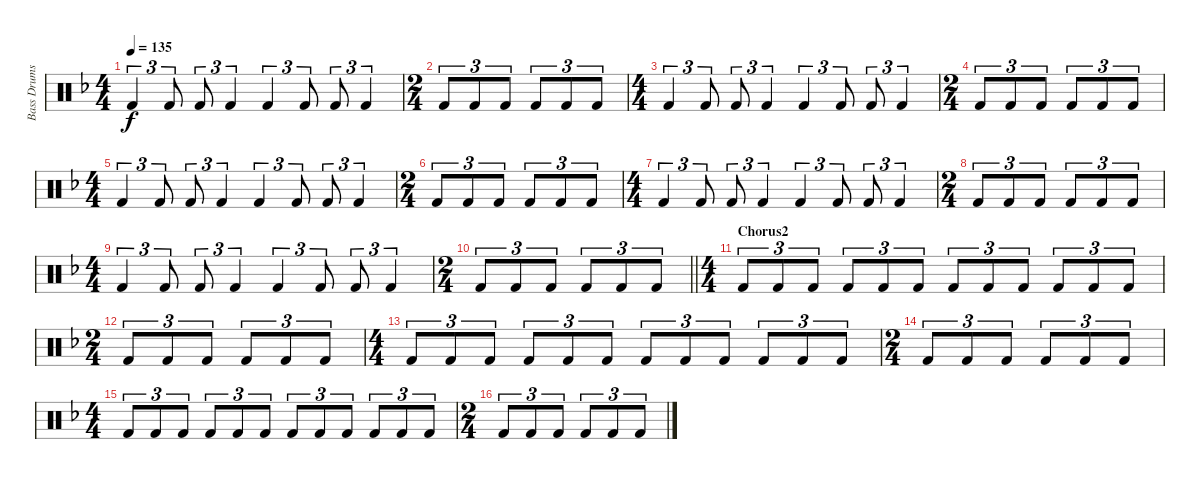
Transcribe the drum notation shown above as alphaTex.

\track ("Bass Drums" "Bass Drums") {instrument percussion}
\staff {score}
\articulation defaults
\ts (4 4)
\tempo 135
\clef neutral
\ks dminor "Kick (hit) 2".4{tu (3 2) dy f} "Kick (hit) 2".8{tu (3 2)} "Kick (hit) 2".8{tu (3 2)} "Kick (hit) 2".4{tu (3 2)} "Kick (hit) 2".4{tu (3 2)} "Kick (hit) 2".8{tu (3 2)} "Kick (hit) 2".8{tu (3 2)} "Kick (hit) 2".4{tu (3 2)}
|
\ts (2 4)
"Kick (hit) 2".8{tu (3 2)} "Kick (hit) 2".8{tu (3 2)} "Kick (hit) 2".8{tu (3 2)} "Kick (hit) 2".8{tu (3 2)} "Kick (hit) 2".8{tu (3 2)} "Kick (hit) 2".8{tu (3 2)} |
\ts (4 4)
"Kick (hit) 2".4{tu (3 2)} "Kick (hit) 2".8{tu (3 2)} "Kick (hit) 2".8{tu (3 2)} "Kick (hit) 2".4{tu (3 2)} "Kick (hit) 2".4{tu (3 2)} "Kick (hit) 2".8{tu (3 2)} "Kick (hit) 2".8{tu (3 2)} "Kick (hit) 2".4{tu (3 2)} |
\ts (2 4)
"Kick (hit) 2".8{tu (3 2)} "Kick (hit) 2".8{tu (3 2)} "Kick (hit) 2".8{tu (3 2)} "Kick (hit) 2".8{tu (3 2)} "Kick (hit) 2".8{tu (3 2)} "Kick (hit) 2".8{tu (3 2)} |
\ts (4 4)
"Kick (hit) 2".4{tu (3 2)} "Kick (hit) 2".8{tu (3 2)} "Kick (hit) 2".8{tu (3 2)} "Kick (hit) 2".4{tu (3 2)} "Kick (hit) 2".4{tu (3 2)} "Kick (hit) 2".8{tu (3 2)} "Kick (hit) 2".8{tu (3 2)} "Kick (hit) 2".4{tu (3 2)} |
\ts (2 4)
"Kick (hit) 2".8{tu (3 2)} "Kick (hit) 2".8{tu (3 2)} "Kick (hit) 2".8{tu (3 2)} "Kick (hit) 2".8{tu (3 2)} "Kick (hit) 2".8{tu (3 2)} "Kick (hit) 2".8{tu (3 2)} |
\ts (4 4)
"Kick (hit) 2".4{tu (3 2)} "Kick (hit) 2".8{tu (3 2)} "Kick (hit) 2".8{tu (3 2)} "Kick (hit) 2".4{tu (3 2)} "Kick (hit) 2".4{tu (3 2)} "Kick (hit) 2".8{tu (3 2)} "Kick (hit) 2".8{tu (3 2)} "Kick (hit) 2".4{tu (3 2)} |
\ts (2 4)
"Kick (hit) 2".8{tu (3 2)} "Kick (hit) 2".8{tu (3 2)} "Kick (hit) 2".8{tu (3 2)} "Kick (hit) 2".8{tu (3 2)} "Kick (hit) 2".8{tu (3 2)} "Kick (hit) 2".8{tu (3 2)} |
\ts (4 4)
"Kick (hit) 2".4{tu (3 2)} "Kick (hit) 2".8{tu (3 2)} "Kick (hit) 2".8{tu (3 2)} "Kick (hit) 2".4{tu (3 2)} "Kick (hit) 2".4{tu (3 2)} "Kick (hit) 2".8{tu (3 2)} "Kick (hit) 2".8{tu (3 2)} "Kick (hit) 2".4{tu (3 2)} |
\ts (2 4)
\barLineRight lightlight "Kick (hit) 2".8{tu (3 2)} "Kick (hit) 2".8{tu (3 2)} "Kick (hit) 2".8{tu (3 2)} "Kick (hit) 2".8{tu (3 2)} "Kick (hit) 2".8{tu (3 2)} "Kick (hit) 2".8{tu (3 2)}
|
\ts (4 4)
\section ("" "Chorus2")
"Kick (hit) 2".8{tu (3 2)} "Kick (hit) 2".8{tu (3 2)} "Kick (hit) 2".8{tu (3 2)} "Kick (hit) 2".8{tu (3 2)} "Kick (hit) 2".8{tu (3 2)} "Kick (hit) 2".8{tu (3 2)} "Kick (hit) 2".8{tu (3 2)} "Kick (hit) 2".8{tu (3 2)} "Kick (hit) 2".8{tu (3 2)} "Kick (hit) 2".8{tu (3 2)} "Kick (hit) 2".8{tu (3 2)} "Kick (hit) 2".8{tu (3 2)} |
\ts (2 4)
"Kick (hit) 2".8{tu (3 2)} "Kick (hit) 2".8{tu (3 2)} "Kick (hit) 2".8{tu (3 2)} "Kick (hit) 2".8{tu (3 2)} "Kick (hit) 2".8{tu (3 2)} "Kick (hit) 2".8{tu (3 2)} |
\ts (4 4)
"Kick (hit) 2".8{tu (3 2)} "Kick (hit) 2".8{tu (3 2)} "Kick (hit) 2".8{tu (3 2)} "Kick (hit) 2".8{tu (3 2)} "Kick (hit) 2".8{tu (3 2)} "Kick (hit) 2".8{tu (3 2)} "Kick (hit) 2".8{tu (3 2)} "Kick (hit) 2".8{tu (3 2)} "Kick (hit) 2".8{tu (3 2)} "Kick (hit) 2".8{tu (3 2)} "Kick (hit) 2".8{tu (3 2)} "Kick (hit) 2".8{tu (3 2)} |
\ts (2 4)
"Kick (hit) 2".8{tu (3 2)} "Kick (hit) 2".8{tu (3 2)} "Kick (hit) 2".8{tu (3 2)} "Kick (hit) 2".8{tu (3 2)} "Kick (hit) 2".8{tu (3 2)} "Kick (hit) 2".8{tu (3 2)} |
\ts (4 4)
"Kick (hit) 2".8{tu (3 2)} "Kick (hit) 2".8{tu (3 2)} "Kick (hit) 2".8{tu (3 2)} "Kick (hit) 2".8{tu (3 2)} "Kick (hit) 2".8{tu (3 2)} "Kick (hit) 2".8{tu (3 2)} "Kick (hit) 2".8{tu (3 2)} "Kick (hit) 2".8{tu (3 2)} "Kick (hit) 2".8{tu (3 2)} "Kick (hit) 2".8{tu (3 2)} "Kick (hit) 2".8{tu (3 2)} "Kick (hit) 2".8{tu (3 2)} |
\ts (2 4)
"Kick (hit) 2".8{tu (3 2)} "Kick (hit) 2".8{tu (3 2)} "Kick (hit) 2".8{tu (3 2)} "Kick (hit) 2".8{tu (3 2)} "Kick (hit) 2".8{tu (3 2)} "Kick (hit) 2".8{tu (3 2)}
